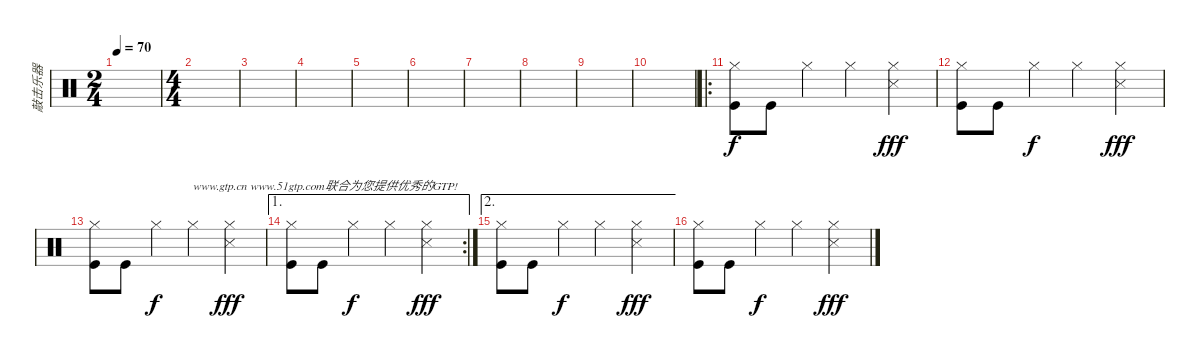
\track ("敲击乐器" "敲击乐器") {instrument percussion}
\staff {score}
\articulation defaults
\ts (2 4)
\tempo 70
\clef neutral
\ks c
|
\ts (4 4)
|
|
|
|
|
|
|
|
|
\ro
("Hi-Hat (closed)" "Kick (hit)").8 "Kick (hit)".8 "Hi-Hat (closed)".4{dy f} "Hi-Hat (closed)".4 ("Hi-Hat (closed)" "Snare (side stick) 3").4{dy fff} |
("Hi-Hat (closed)" "Kick (hit)").8 "Kick (hit)".8 "Hi-Hat (closed)".4{dy f} "Hi-Hat (closed)".4 ("Hi-Hat (closed)" "Snare (side stick) 3").4{dy fff} |
("Hi-Hat (closed)" "Kick (hit)").8 "Kick (hit)".8 "Hi-Hat (closed)".4{dy f} "Hi-Hat (closed)".4{txt "www.gtp.cn www.51gtp.com联合为您提供优秀的GTP!"} ("Hi-Hat (closed)" "Snare (side stick) 3").4{dy fff} |
\ae 1
\rc 2
("Hi-Hat (closed)" "Kick (hit)").8 "Kick (hit)".8 "Hi-Hat (closed)".4{dy f} "Hi-Hat (closed)".4 ("Hi-Hat (closed)" "Snare (side stick) 3").4{dy fff} |
\ae 2
("Hi-Hat (closed)" "Kick (hit)").8 "Kick (hit)".8 "Hi-Hat (closed)".4{dy f} "Hi-Hat (closed)".4 ("Hi-Hat (closed)" "Snare (side stick) 3").4{dy fff} |
("Hi-Hat (closed)" "Kick (hit)").8 "Kick (hit)".8 "Hi-Hat (closed)".4{dy f} "Hi-Hat (closed)".4 ("Hi-Hat (closed)" "Snare (side stick) 3").4{dy fff}
